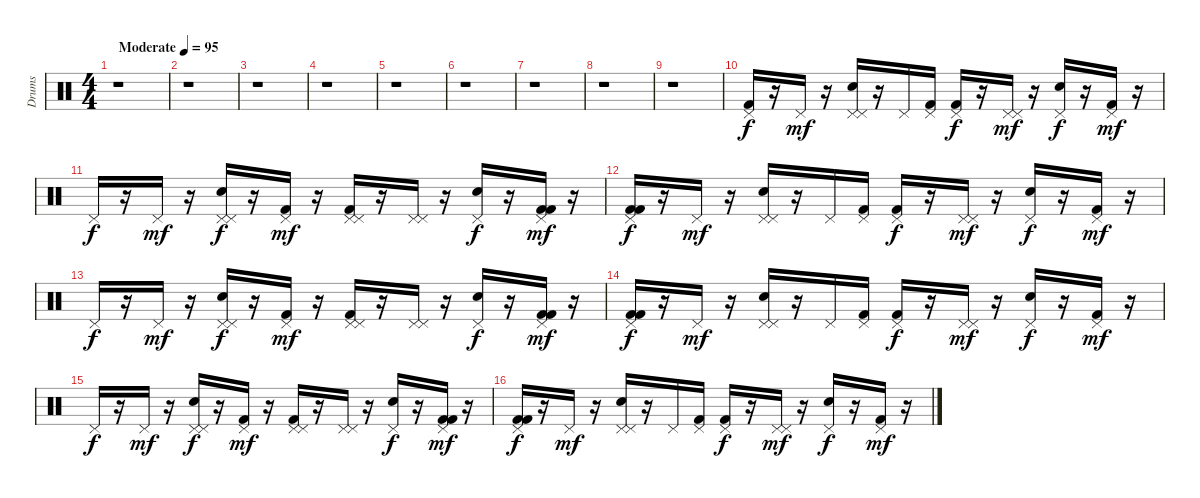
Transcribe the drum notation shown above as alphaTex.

\track ("Drums" "Drums") {instrument percussion}
\staff {score}
\articulation defaults
\ts (4 4)
\tempo (95 "Moderate")
\clef neutral
\ks c
r.1{dy f} |
r.1 |
r.1 |
r.1 |
r.1 |
r.1 |
r.1 |
r.1 |
r.1 |
("Kick (hit) 2" "Pedal Hi-Hat (hit)").16 r.16 "Pedal Hi-Hat (hit)".16{dy mf} r.16 ("Pedal Hi-Hat (hit)" "Pedal Hi-Hat (hit)" "Snare (hit) 2").16 r.16 "Pedal Hi-Hat (hit)".16 ("Kick (hit) 2" "Pedal Hi-Hat (hit)").16 ("Kick (hit) 2" "Pedal Hi-Hat (hit)").16{dy f} r.16 ("Pedal Hi-Hat (hit)" "Pedal Hi-Hat (hit)").16{dy mf} r.16 ("Pedal Hi-Hat (hit)" "Snare (hit) 2").16{dy f} r.16 ("Kick (hit) 2" "Pedal Hi-Hat (hit)").16{dy mf} r.16 |
"Pedal Hi-Hat (hit)".16{dy f} r.16 "Pedal Hi-Hat (hit)".16{dy mf} r.16 ("Pedal Hi-Hat (hit)" "Pedal Hi-Hat (hit)" "Snare (hit) 2").16{dy f} r.16 ("Kick (hit) 2" "Pedal Hi-Hat (hit)").16{dy mf} r.16 ("Pedal Hi-Hat (hit)" "Kick (hit) 2" "Pedal Hi-Hat (hit)").16 r.16 ("Pedal Hi-Hat (hit)" "Pedal Hi-Hat (hit)").16 r.16 ("Pedal Hi-Hat (hit)" "Snare (hit) 2").16{dy f} r.16 ("Kick (hit) 2" "Kick (hit) 2" "Pedal Hi-Hat (hit)").16{dy mf} r.16 |
("Kick (hit) 2" "Kick (hit) 2" "Pedal Hi-Hat (hit)").16{dy f} r.16 "Pedal Hi-Hat (hit)".16{dy mf} r.16 ("Pedal Hi-Hat (hit)" "Pedal Hi-Hat (hit)" "Snare (hit) 2").16 r.16 "Pedal Hi-Hat (hit)".16 ("Kick (hit) 2" "Pedal Hi-Hat (hit)").16 ("Kick (hit) 2" "Pedal Hi-Hat (hit)").16{dy f} r.16 ("Pedal Hi-Hat (hit)" "Pedal Hi-Hat (hit)").16{dy mf} r.16 ("Pedal Hi-Hat (hit)" "Snare (hit) 2").16{dy f} r.16 ("Kick (hit) 2" "Pedal Hi-Hat (hit)").16{dy mf} r.16 |
"Pedal Hi-Hat (hit)".16{dy f} r.16 "Pedal Hi-Hat (hit)".16{dy mf} r.16 ("Pedal Hi-Hat (hit)" "Pedal Hi-Hat (hit)" "Snare (hit) 2").16{dy f} r.16 ("Kick (hit) 2" "Pedal Hi-Hat (hit)").16{dy mf} r.16 ("Pedal Hi-Hat (hit)" "Kick (hit) 2" "Pedal Hi-Hat (hit)").16 r.16 ("Pedal Hi-Hat (hit)" "Pedal Hi-Hat (hit)").16 r.16 ("Pedal Hi-Hat (hit)" "Snare (hit) 2").16{dy f} r.16 ("Kick (hit) 2" "Kick (hit) 2" "Pedal Hi-Hat (hit)").16{dy mf} r.16 |
("Kick (hit) 2" "Kick (hit) 2" "Pedal Hi-Hat (hit)").16{dy f} r.16 "Pedal Hi-Hat (hit)".16{dy mf} r.16 ("Pedal Hi-Hat (hit)" "Pedal Hi-Hat (hit)" "Snare (hit) 2").16 r.16 "Pedal Hi-Hat (hit)".16 ("Kick (hit) 2" "Pedal Hi-Hat (hit)").16 ("Kick (hit) 2" "Pedal Hi-Hat (hit)").16{dy f} r.16 ("Pedal Hi-Hat (hit)" "Pedal Hi-Hat (hit)").16{dy mf} r.16 ("Pedal Hi-Hat (hit)" "Snare (hit) 2").16{dy f} r.16 ("Kick (hit) 2" "Pedal Hi-Hat (hit)").16{dy mf} r.16 |
"Pedal Hi-Hat (hit)".16{dy f} r.16 "Pedal Hi-Hat (hit)".16{dy mf} r.16 ("Pedal Hi-Hat (hit)" "Pedal Hi-Hat (hit)" "Snare (hit) 2").16{dy f} r.16 ("Kick (hit) 2" "Pedal Hi-Hat (hit)").16{dy mf} r.16 ("Pedal Hi-Hat (hit)" "Kick (hit) 2" "Pedal Hi-Hat (hit)").16 r.16 ("Pedal Hi-Hat (hit)" "Pedal Hi-Hat (hit)").16 r.16 ("Pedal Hi-Hat (hit)" "Snare (hit) 2").16{dy f} r.16 ("Kick (hit) 2" "Kick (hit) 2" "Pedal Hi-Hat (hit)").16{dy mf} r.16 |
("Kick (hit) 2" "Kick (hit) 2" "Pedal Hi-Hat (hit)").16{dy f} r.16 "Pedal Hi-Hat (hit)".16{dy mf} r.16 ("Pedal Hi-Hat (hit)" "Pedal Hi-Hat (hit)" "Snare (hit) 2").16 r.16 "Pedal Hi-Hat (hit)".16 ("Kick (hit) 2" "Pedal Hi-Hat (hit)").16 ("Kick (hit) 2" "Pedal Hi-Hat (hit)").16{dy f} r.16 ("Pedal Hi-Hat (hit)" "Pedal Hi-Hat (hit)").16{dy mf} r.16 ("Pedal Hi-Hat (hit)" "Snare (hit) 2").16{dy f} r.16 ("Kick (hit) 2" "Pedal Hi-Hat (hit)").16{dy mf} r.16
